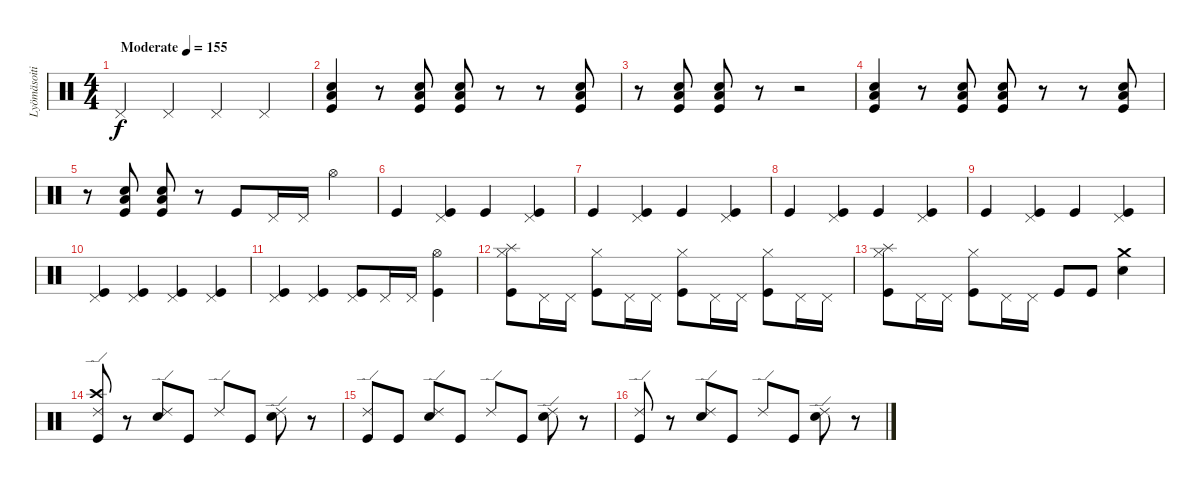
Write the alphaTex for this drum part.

\track ("Lyömäsoitin" "Lyömäsoiti") {instrument percussion}
\staff {score}
\articulation defaults
\ts (4 4)
\tempo (155 "Moderate")
\clef neutral
\ks c "Pedal Hi-Hat (hit)".4{dy f} "Pedal Hi-Hat (hit)".4 "Pedal Hi-Hat (hit)".4 "Pedal Hi-Hat (hit)".4
|
("Kick (hit)" "Low Tom (hit)" "Snare (hit) 2").4 r.8 ("Kick (hit)" "Low Tom (hit)" "Snare (hit) 2").8 ("Kick (hit)" "Low Tom (hit)" "Snare (hit) 2").8 r.8 r.8 ("Kick (hit)" "Low Tom (hit)" "Snare (hit) 2").8 |
r.8 ("Kick (hit)" "Low Tom (hit)" "Snare (hit) 2").8 ("Kick (hit)" "Low Tom (hit)" "Snare (hit) 2").8 r.8 r.2 |
("Kick (hit)" "Low Tom (hit)" "Snare (hit) 2").4 r.8 ("Kick (hit)" "Low Tom (hit)" "Snare (hit) 2").8 ("Kick (hit)" "Low Tom (hit)" "Snare (hit) 2").8 r.8 r.8 ("Kick (hit)" "Low Tom (hit)" "Snare (hit) 2").8 |
r.8 ("Kick (hit)" "Low Tom (hit)" "Snare (hit) 2").8 ("Kick (hit)" "Low Tom (hit)" "Snare (hit) 2").8 r.8 "Kick (hit)".8 "Pedal Hi-Hat (hit)".16 "Pedal Hi-Hat (hit)".16 "Hi-Hat (open)".4 |
"Kick (hit)".4 ("Pedal Hi-Hat (hit)" "Kick (hit)").4 "Kick (hit)".4 ("Pedal Hi-Hat (hit)" "Kick (hit)").4 |
"Kick (hit)".4 ("Pedal Hi-Hat (hit)" "Kick (hit)").4 "Kick (hit)".4 ("Pedal Hi-Hat (hit)" "Kick (hit)").4 |
"Kick (hit)".4 ("Pedal Hi-Hat (hit)" "Kick (hit)").4 "Kick (hit)".4 ("Pedal Hi-Hat (hit)" "Kick (hit)").4 |
"Kick (hit)".4 ("Pedal Hi-Hat (hit)" "Kick (hit)").4 "Kick (hit)".4 ("Pedal Hi-Hat (hit)" "Kick (hit)").4 |
("Pedal Hi-Hat (hit)" "Kick (hit)").4 ("Pedal Hi-Hat (hit)" "Kick (hit)").4 ("Pedal Hi-Hat (hit)" "Kick (hit)").4 ("Pedal Hi-Hat (hit)" "Kick (hit)").4 |
("Pedal Hi-Hat (hit)" "Kick (hit)").4 ("Pedal Hi-Hat (hit)" "Kick (hit)").4 ("Pedal Hi-Hat (hit)" "Kick (hit)").8 "Pedal Hi-Hat (hit)".16 "Pedal Hi-Hat (hit)".16 ("Hi-Hat (open)" "Kick (hit)").4 |
("Splash (hit)" "Hi-Hat (closed)" "Kick (hit)").8 "Pedal Hi-Hat (hit)".16 "Pedal Hi-Hat (hit)".16 ("Hi-Hat (closed)" "Kick (hit)").8 "Pedal Hi-Hat (hit)".16 "Pedal Hi-Hat (hit)".16 ("Hi-Hat (closed)" "Kick (hit)").8 "Pedal Hi-Hat (hit)".16 "Pedal Hi-Hat (hit)".16 ("Hi-Hat (closed)" "Kick (hit)").8 "Pedal Hi-Hat (hit)".16 "Pedal Hi-Hat (hit)".16 |
("Splash (hit)" "Hi-Hat (closed)" "Kick (hit)").8 "Pedal Hi-Hat (hit)".16 "Pedal Hi-Hat (hit)".16 ("Hi-Hat (closed)" "Kick (hit)").8 "Pedal Hi-Hat (hit)".16 "Pedal Hi-Hat (hit)".16 "Kick (hit)".8 "Kick (hit)".8 ("Crash medium (hit)" "Snare (hit) 2").4 |
("Crash high (hit)" "Ride (edge) 2" "Kick (hit)").8 r.8 ("Ride (edge) 2" "Snare (hit) 2").8 "Kick (hit)".8 "Ride (edge) 2".8 "Kick (hit)".8 ("Ride (edge) 2" "Snare (hit) 2").8 r.8 |
("Ride (edge) 2" "Kick (hit)").8 "Kick (hit)".8 ("Ride (edge) 2" "Snare (hit) 2").8 "Kick (hit)".8 "Ride (edge) 2".8 "Kick (hit)".8 ("Ride (edge) 2" "Snare (hit) 2").8 r.8 |
("Ride (edge) 2" "Kick (hit)").8 r.8 ("Ride (edge) 2" "Snare (hit) 2").8 "Kick (hit)".8 "Ride (edge) 2".8 "Kick (hit)".8 ("Ride (edge) 2" "Snare (hit) 2").8 r.8
